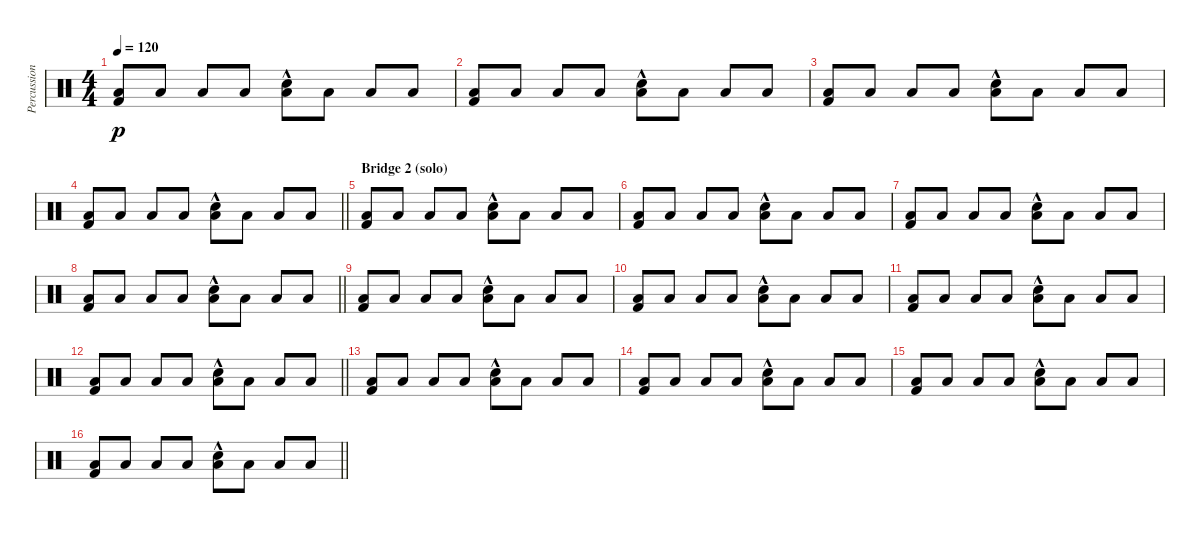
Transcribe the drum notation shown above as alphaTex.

\track ("Percussion" "Percussion") {instrument percussion}
\staff {score}
\articulation defaults
\ts (4 4)
\tempo 120
\clef neutral
\ks c
("Kick (hit) 2" "Low Floor Tom (hit)").8{dy p} "Low Floor Tom (hit)".8 "Low Floor Tom (hit)".8 "Low Floor Tom (hit)".8 ("Snare (hit) 2"{hac} "Low Floor Tom (hit)").8 "Low Floor Tom (hit)".8 "Low Floor Tom (hit)".8 "Low Floor Tom (hit)".8 |
("Kick (hit) 2" "Low Floor Tom (hit)").8 "Low Floor Tom (hit)".8 "Low Floor Tom (hit)".8 "Low Floor Tom (hit)".8 ("Snare (hit) 2"{hac} "Low Floor Tom (hit)").8 "Low Floor Tom (hit)".8 "Low Floor Tom (hit)".8 "Low Floor Tom (hit)".8 |
("Kick (hit) 2" "Low Floor Tom (hit)").8 "Low Floor Tom (hit)".8 "Low Floor Tom (hit)".8 "Low Floor Tom (hit)".8 ("Snare (hit) 2"{hac} "Low Floor Tom (hit)").8 "Low Floor Tom (hit)".8 "Low Floor Tom (hit)".8 "Low Floor Tom (hit)".8 |
\barLineRight lightlight
("Kick (hit) 2" "Low Floor Tom (hit)").8 "Low Floor Tom (hit)".8 "Low Floor Tom (hit)".8 "Low Floor Tom (hit)".8 ("Snare (hit) 2"{hac} "Low Floor Tom (hit)").8 "Low Floor Tom (hit)".8 "Low Floor Tom (hit)".8 "Low Floor Tom (hit)".8 |
\section ("" "Bridge 2 (solo)")
("Kick (hit) 2" "Low Floor Tom (hit)").8 "Low Floor Tom (hit)".8 "Low Floor Tom (hit)".8 "Low Floor Tom (hit)".8 ("Snare (hit) 2"{hac} "Low Floor Tom (hit)").8 "Low Floor Tom (hit)".8 "Low Floor Tom (hit)".8 "Low Floor Tom (hit)".8 |
("Kick (hit) 2" "Low Floor Tom (hit)").8 "Low Floor Tom (hit)".8 "Low Floor Tom (hit)".8 "Low Floor Tom (hit)".8 ("Snare (hit) 2"{hac} "Low Floor Tom (hit)").8 "Low Floor Tom (hit)".8 "Low Floor Tom (hit)".8 "Low Floor Tom (hit)".8 |
("Kick (hit) 2" "Low Floor Tom (hit)").8 "Low Floor Tom (hit)".8 "Low Floor Tom (hit)".8 "Low Floor Tom (hit)".8 ("Snare (hit) 2"{hac} "Low Floor Tom (hit)").8 "Low Floor Tom (hit)".8 "Low Floor Tom (hit)".8 "Low Floor Tom (hit)".8 |
\barLineRight lightlight
("Kick (hit) 2" "Low Floor Tom (hit)").8 "Low Floor Tom (hit)".8 "Low Floor Tom (hit)".8 "Low Floor Tom (hit)".8 ("Snare (hit) 2"{hac} "Low Floor Tom (hit)").8 "Low Floor Tom (hit)".8 "Low Floor Tom (hit)".8 "Low Floor Tom (hit)".8 |
("Kick (hit) 2" "Low Floor Tom (hit)").8 "Low Floor Tom (hit)".8 "Low Floor Tom (hit)".8 "Low Floor Tom (hit)".8 ("Snare (hit) 2"{hac} "Low Floor Tom (hit)").8 "Low Floor Tom (hit)".8 "Low Floor Tom (hit)".8 "Low Floor Tom (hit)".8 |
("Kick (hit) 2" "Low Floor Tom (hit)").8 "Low Floor Tom (hit)".8 "Low Floor Tom (hit)".8 "Low Floor Tom (hit)".8 ("Snare (hit) 2"{hac} "Low Floor Tom (hit)").8 "Low Floor Tom (hit)".8 "Low Floor Tom (hit)".8 "Low Floor Tom (hit)".8 |
("Kick (hit) 2" "Low Floor Tom (hit)").8 "Low Floor Tom (hit)".8 "Low Floor Tom (hit)".8 "Low Floor Tom (hit)".8 ("Snare (hit) 2"{hac} "Low Floor Tom (hit)").8 "Low Floor Tom (hit)".8 "Low Floor Tom (hit)".8 "Low Floor Tom (hit)".8 |
\barLineRight lightlight
("Kick (hit) 2" "Low Floor Tom (hit)").8 "Low Floor Tom (hit)".8 "Low Floor Tom (hit)".8 "Low Floor Tom (hit)".8 ("Snare (hit) 2"{hac} "Low Floor Tom (hit)").8 "Low Floor Tom (hit)".8 "Low Floor Tom (hit)".8 "Low Floor Tom (hit)".8 |
("Kick (hit) 2" "Low Floor Tom (hit)").8 "Low Floor Tom (hit)".8 "Low Floor Tom (hit)".8 "Low Floor Tom (hit)".8 ("Snare (hit) 2"{hac} "Low Floor Tom (hit)").8 "Low Floor Tom (hit)".8 "Low Floor Tom (hit)".8 "Low Floor Tom (hit)".8 |
("Kick (hit) 2" "Low Floor Tom (hit)").8 "Low Floor Tom (hit)".8 "Low Floor Tom (hit)".8 "Low Floor Tom (hit)".8 ("Snare (hit) 2"{hac} "Low Floor Tom (hit)").8 "Low Floor Tom (hit)".8 "Low Floor Tom (hit)".8 "Low Floor Tom (hit)".8 |
("Kick (hit) 2" "Low Floor Tom (hit)").8 "Low Floor Tom (hit)".8 "Low Floor Tom (hit)".8 "Low Floor Tom (hit)".8 ("Snare (hit) 2"{hac} "Low Floor Tom (hit)").8 "Low Floor Tom (hit)".8 "Low Floor Tom (hit)".8 "Low Floor Tom (hit)".8 |
\barLineRight lightlight
("Kick (hit) 2" "Low Floor Tom (hit)").8 "Low Floor Tom (hit)".8 "Low Floor Tom (hit)".8 "Low Floor Tom (hit)".8 ("Snare (hit) 2"{hac} "Low Floor Tom (hit)").8 "Low Floor Tom (hit)".8 "Low Floor Tom (hit)".8 "Low Floor Tom (hit)".8
